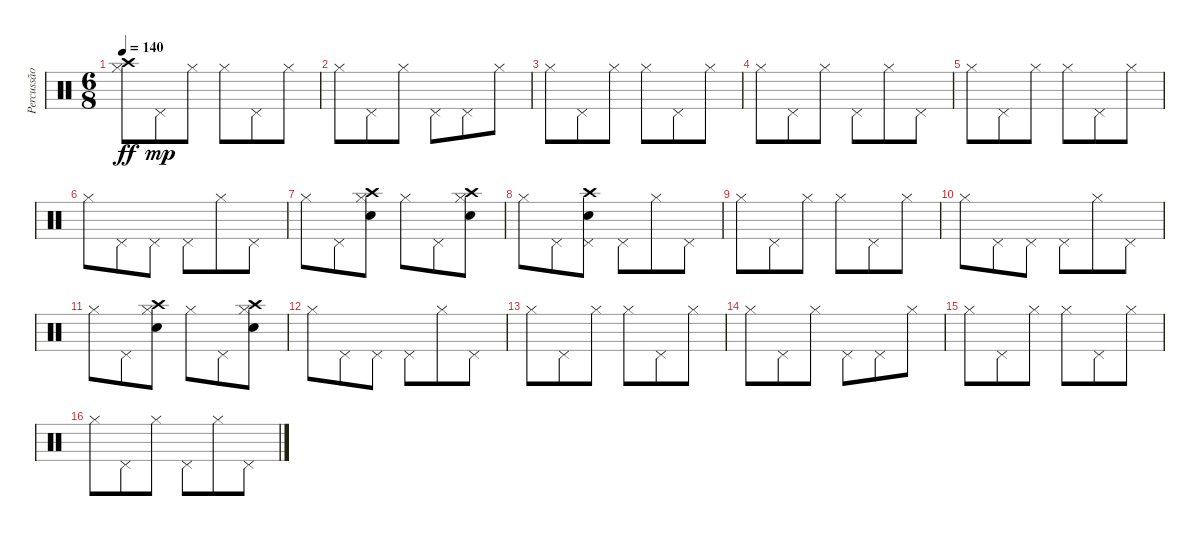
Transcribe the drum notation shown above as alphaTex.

\track ("Percussão" "Percussão") {instrument percussion}
\staff {score}
\articulation defaults
\ts (6 8)
\tempo 140
\clef neutral
\ks c
("Hi-Hat (closed)" "Crash high (hit)").8{dy ff} "Pedal Hi-Hat (hit)".8{dy mp} "Hi-Hat (closed)".8 "Hi-Hat (closed)".8 "Pedal Hi-Hat (hit)".8 "Hi-Hat (closed)".8 |
"Hi-Hat (closed)".8 "Pedal Hi-Hat (hit)".8 "Hi-Hat (closed)".8 "Pedal Hi-Hat (hit)".8 "Pedal Hi-Hat (hit)".8 "Hi-Hat (closed)".8 |
"Hi-Hat (closed)".8 "Pedal Hi-Hat (hit)".8 "Hi-Hat (closed)".8 "Hi-Hat (closed)".8 "Pedal Hi-Hat (hit)".8 "Hi-Hat (closed)".8 |
"Hi-Hat (closed)".8 "Pedal Hi-Hat (hit)".8 "Hi-Hat (closed)".8 "Pedal Hi-Hat (hit)".8 "Hi-Hat (closed)".8 "Pedal Hi-Hat (hit)".8 |
"Hi-Hat (closed)".8 "Pedal Hi-Hat (hit)".8 "Hi-Hat (closed)".8 "Hi-Hat (closed)".8 "Pedal Hi-Hat (hit)".8 "Hi-Hat (closed)".8 |
"Hi-Hat (closed)".8 "Pedal Hi-Hat (hit)".8 "Pedal Hi-Hat (hit)".8 "Pedal Hi-Hat (hit)".8 "Hi-Hat (closed)".8 "Pedal Hi-Hat (hit)".8 |
"Hi-Hat (closed)".8 "Pedal Hi-Hat (hit)".8 ("Hi-Hat (closed)" "Snare (hit) 2" "Crash high (hit)").8 "Hi-Hat (closed)".8 "Pedal Hi-Hat (hit)".8 ("Hi-Hat (closed)" "Snare (hit) 2" "Crash high (hit)").8 |
"Hi-Hat (closed)".8 "Pedal Hi-Hat (hit)".8 ("Pedal Hi-Hat (hit)" "Snare (hit) 2" "Crash high (hit)").8 "Pedal Hi-Hat (hit)".8 "Hi-Hat (closed)".8 "Pedal Hi-Hat (hit)".8 |
"Hi-Hat (closed)".8 "Pedal Hi-Hat (hit)".8 "Hi-Hat (closed)".8 "Hi-Hat (closed)".8 "Pedal Hi-Hat (hit)".8 "Hi-Hat (closed)".8 |
"Hi-Hat (closed)".8 "Pedal Hi-Hat (hit)".8 "Pedal Hi-Hat (hit)".8 "Pedal Hi-Hat (hit)".8 "Hi-Hat (closed)".8 "Pedal Hi-Hat (hit)".8 |
"Hi-Hat (closed)".8 "Pedal Hi-Hat (hit)".8 ("Hi-Hat (closed)" "Snare (hit) 2" "Crash high (hit)").8 "Hi-Hat (closed)".8 "Pedal Hi-Hat (hit)".8 ("Hi-Hat (closed)" "Snare (hit) 2" "Crash high (hit)").8 |
"Hi-Hat (closed)".8 "Pedal Hi-Hat (hit)".8 "Pedal Hi-Hat (hit)".8 "Pedal Hi-Hat (hit)".8 "Hi-Hat (closed)".8 "Pedal Hi-Hat (hit)".8 |
"Hi-Hat (closed)".8 "Pedal Hi-Hat (hit)".8 "Hi-Hat (closed)".8 "Hi-Hat (closed)".8 "Pedal Hi-Hat (hit)".8 "Hi-Hat (closed)".8 |
"Hi-Hat (closed)".8 "Pedal Hi-Hat (hit)".8 "Hi-Hat (closed)".8 "Pedal Hi-Hat (hit)".8 "Pedal Hi-Hat (hit)".8 "Hi-Hat (closed)".8 |
"Hi-Hat (closed)".8 "Pedal Hi-Hat (hit)".8 "Hi-Hat (closed)".8 "Hi-Hat (closed)".8 "Pedal Hi-Hat (hit)".8 "Hi-Hat (closed)".8 |
"Hi-Hat (closed)".8 "Pedal Hi-Hat (hit)".8 "Hi-Hat (closed)".8 "Pedal Hi-Hat (hit)".8 "Hi-Hat (closed)".8 "Pedal Hi-Hat (hit)".8
